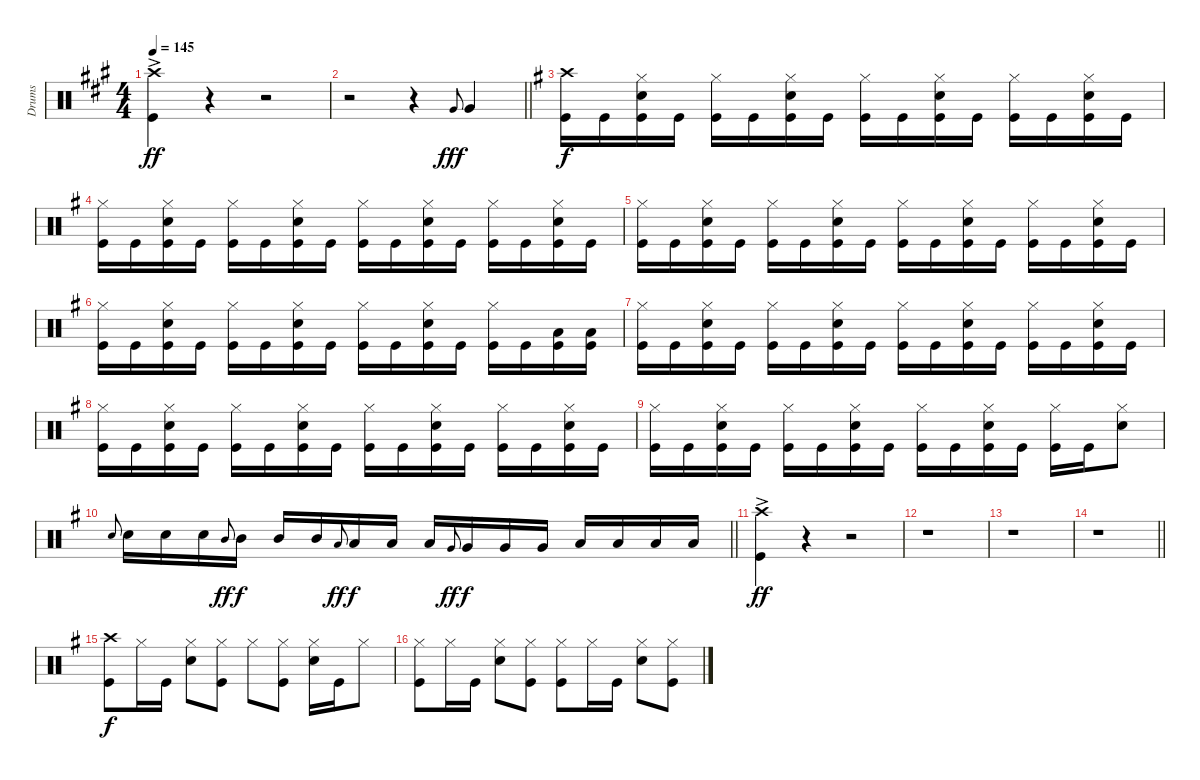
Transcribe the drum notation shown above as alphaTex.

\track ("Drums" "Drums") {instrument percussion}
\staff {score}
\articulation defaults
\ts (4 4)
\tempo 145
\clef neutral
\ks f#minor
("Crash high (hit)"{ac} "Kick (hit)"{ac}).4{dy ff} r.4 r.2 |
\barLineRight lightlight
r.2 r.4 "Very Low Tom (hit)".8{gr onbeat dy fff} "Very Low Tom (hit)".4 |
\ks eminor
("Crash high (hit)" "Kick (hit)").16{dy f} "Kick (hit)".16 ("Hi-Hat (closed)" "Snare (hit) 2" "Kick (hit)").16 "Kick (hit)".16 ("Hi-Hat (closed)" "Kick (hit)").16 "Kick (hit)".16 ("Hi-Hat (closed)" "Snare (hit) 2" "Kick (hit)").16 "Kick (hit)".16 ("Hi-Hat (closed)" "Kick (hit)").16 "Kick (hit)".16 ("Hi-Hat (closed)" "Snare (hit) 2" "Kick (hit)").16 "Kick (hit)".16 ("Hi-Hat (closed)" "Kick (hit)").16 "Kick (hit)".16 ("Hi-Hat (closed)" "Snare (hit) 2" "Kick (hit)").16 "Kick (hit)".16 |
("Hi-Hat (closed)" "Kick (hit)").16 "Kick (hit)".16 ("Hi-Hat (closed)" "Snare (hit) 2" "Kick (hit)").16 "Kick (hit)".16 ("Hi-Hat (closed)" "Kick (hit)").16 "Kick (hit)".16 ("Hi-Hat (closed)" "Snare (hit) 2" "Kick (hit)").16 "Kick (hit)".16 ("Hi-Hat (closed)" "Kick (hit)").16 "Kick (hit)".16 ("Hi-Hat (closed)" "Snare (hit) 2" "Kick (hit)").16 "Kick (hit)".16 ("Hi-Hat (closed)" "Kick (hit)").16 "Kick (hit)".16 ("Hi-Hat (closed)" "Snare (hit) 2" "Kick (hit)").16 "Kick (hit)".16 |
("Hi-Hat (closed)" "Kick (hit)").16 "Kick (hit)".16 ("Hi-Hat (closed)" "Snare (hit) 2" "Kick (hit)").16 "Kick (hit)".16 ("Hi-Hat (closed)" "Kick (hit)").16 "Kick (hit)".16 ("Hi-Hat (closed)" "Snare (hit) 2" "Kick (hit)").16 "Kick (hit)".16 ("Hi-Hat (closed)" "Kick (hit)").16 "Kick (hit)".16 ("Hi-Hat (closed)" "Snare (hit) 2" "Kick (hit)").16 "Kick (hit)".16 ("Hi-Hat (closed)" "Kick (hit)").16 "Kick (hit)".16 ("Hi-Hat (closed)" "Snare (hit) 2" "Kick (hit)").16 "Kick (hit)".16 |
("Hi-Hat (closed)" "Kick (hit)").16 "Kick (hit)".16 ("Hi-Hat (closed)" "Snare (hit) 2" "Kick (hit)").16 "Kick (hit)".16 ("Hi-Hat (closed)" "Kick (hit)").16 "Kick (hit)".16 ("Hi-Hat (closed)" "Snare (hit) 2" "Kick (hit)").16 "Kick (hit)".16 ("Hi-Hat (closed)" "Kick (hit)").16 "Kick (hit)".16 ("Hi-Hat (closed)" "Snare (hit) 2" "Kick (hit)").16 "Kick (hit)".16 ("Hi-Hat (closed)" "Kick (hit)").16 "Kick (hit)".16 ("Low Tom (hit)" "Kick (hit)").16 ("Low Tom (hit)" "Kick (hit)").16 |
("Hi-Hat (closed)" "Kick (hit)").16 "Kick (hit)".16 ("Hi-Hat (closed)" "Snare (hit) 2" "Kick (hit)").16 "Kick (hit)".16 ("Hi-Hat (closed)" "Kick (hit)").16 "Kick (hit)".16 ("Hi-Hat (closed)" "Snare (hit) 2" "Kick (hit)").16 "Kick (hit)".16 ("Hi-Hat (closed)" "Kick (hit)").16 "Kick (hit)".16 ("Hi-Hat (closed)" "Snare (hit) 2" "Kick (hit)").16 "Kick (hit)".16 ("Hi-Hat (closed)" "Kick (hit)").16 "Kick (hit)".16 ("Hi-Hat (closed)" "Snare (hit) 2" "Kick (hit)").16 "Kick (hit)".16 |
("Hi-Hat (closed)" "Kick (hit)").16 "Kick (hit)".16 ("Hi-Hat (closed)" "Snare (hit) 2" "Kick (hit)").16 "Kick (hit)".16 ("Hi-Hat (closed)" "Kick (hit)").16 "Kick (hit)".16 ("Hi-Hat (closed)" "Snare (hit) 2" "Kick (hit)").16 "Kick (hit)".16 ("Hi-Hat (closed)" "Kick (hit)").16 "Kick (hit)".16 ("Hi-Hat (closed)" "Snare (hit) 2" "Kick (hit)").16 "Kick (hit)".16 ("Hi-Hat (closed)" "Kick (hit)").16 "Kick (hit)".16 ("Hi-Hat (closed)" "Snare (hit) 2" "Kick (hit)").16 "Kick (hit)".16 |
("Hi-Hat (closed)" "Kick (hit)").16 "Kick (hit)".16 ("Hi-Hat (closed)" "Snare (hit) 2" "Kick (hit)").16 "Kick (hit)".16 ("Hi-Hat (closed)" "Kick (hit)").16 "Kick (hit)".16 ("Hi-Hat (closed)" "Snare (hit) 2" "Kick (hit)").16 "Kick (hit)".16 ("Hi-Hat (closed)" "Kick (hit)").16 "Kick (hit)".16 ("Hi-Hat (closed)" "Snare (hit) 2" "Kick (hit)").16 "Kick (hit)".16 ("Hi-Hat (closed)" "Kick (hit)").16 "Kick (hit)".16 ("Hi-Hat (closed)" "Snare (hit) 2").8 |
\barLineRight lightlight "Snare (hit) 2".8{gr onbeat} "Snare (hit) 2".16 "Snare (hit) 2".16 "Snare (hit) 2".16 "Mid Tom (hit)".8{gr onbeat dy ff} "Mid Tom (hit)".16{dy f} "Mid Tom (hit)".16 "Mid Tom (hit)".16 "Low Tom (hit)".8{gr onbeat dy ff} "Low Tom (hit)".16{dy f} "Low Tom (hit)".16 "Low Tom (hit)".16 "Very Low Tom (hit)".8{gr onbeat dy ff} "Very Low Tom (hit)".16{dy f} "Very Low Tom (hit)".16 "Very Low Tom (hit)".16 "Low Floor Tom (hit)".16 "Low Floor Tom (hit)".16 "Low Floor Tom (hit)".16 "Low Floor Tom (hit)".16
|
("Crash high (hit)"{ac} "Kick (hit)"{ac}).4{dy ff} r.4 r.2 |
r.1 |
r.1 |
\barLineRight lightlight
r.1 |
("Crash high (hit)" "Kick (hit)").8{dy f} "Hi-Hat (closed)".16 "Kick (hit)".16 ("Hi-Hat (closed)" "Snare (hit) 2").8 ("Hi-Hat (closed)" "Kick (hit)").8 "Hi-Hat (closed)".8 ("Hi-Hat (closed)" "Kick (hit)").8 ("Hi-Hat (closed)" "Snare (hit) 2").16 "Kick (hit)".16 "Hi-Hat (closed)".8 |
("Hi-Hat (closed)" "Kick (hit)").8 "Hi-Hat (closed)".16 "Kick (hit)".16 ("Hi-Hat (closed)" "Snare (hit) 2").8 ("Hi-Hat (closed)" "Kick (hit)").8 ("Hi-Hat (closed)" "Kick (hit)").8 "Hi-Hat (closed)".16 "Kick (hit)".16 ("Hi-Hat (closed)" "Snare (hit) 2").8 ("Hi-Hat (closed)" "Kick (hit)").8
